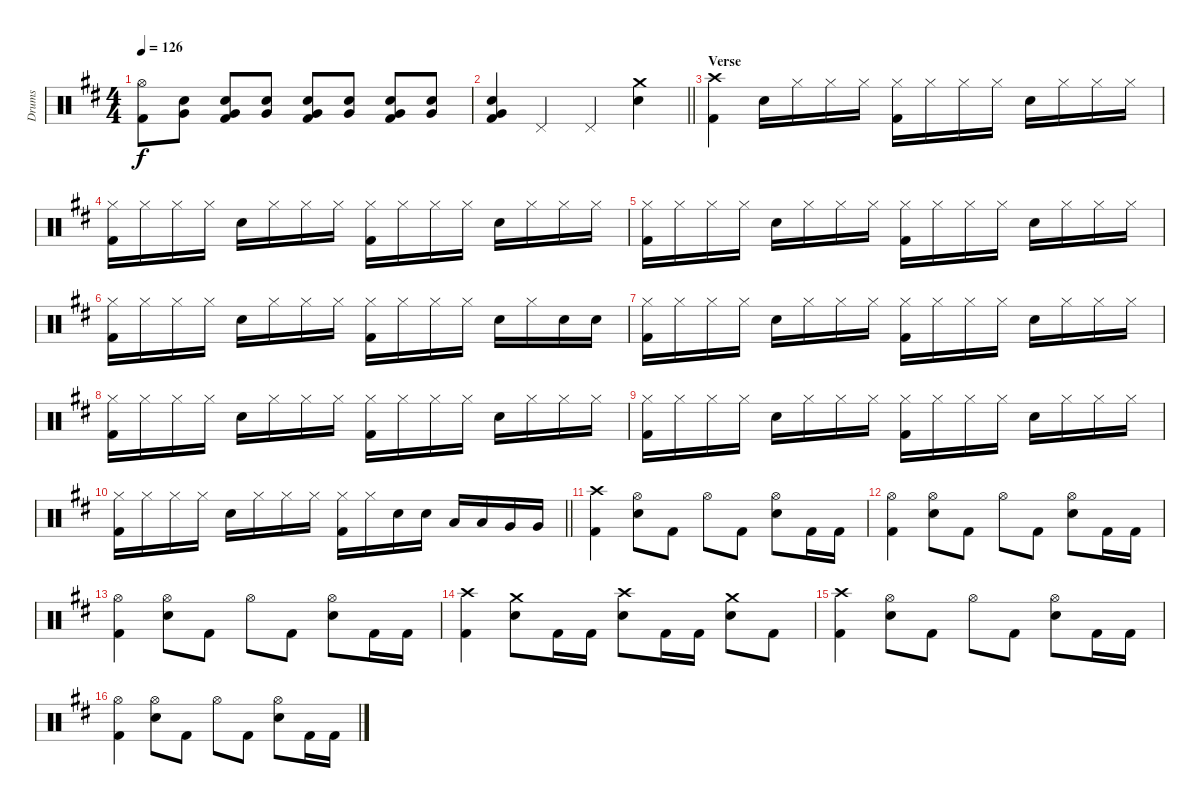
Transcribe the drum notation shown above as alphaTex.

\track ("Drums" "Drums") {instrument percussion}
\staff {score}
\articulation defaults
\ts (4 4)
\tempo 126
\clef neutral
\ks d
("Hi-Hat (open)" "Kick (hit) 2").8{dy f} ("Very Low Tom (hit)" "Electric Snare (hit)").8 ("Very Low Tom (hit)" "Electric Snare (hit)" "Kick (hit) 2").8 ("Very Low Tom (hit)" "Electric Snare (hit)").8 ("Very Low Tom (hit)" "Electric Snare (hit)" "Kick (hit) 2").8 ("Very Low Tom (hit)" "Electric Snare (hit)").8 ("Very Low Tom (hit)" "Electric Snare (hit)" "Kick (hit) 2").8 ("Very Low Tom (hit)" "Electric Snare (hit)").8 |
\barLineRight lightlight
("Very Low Tom (hit)" "Electric Snare (hit)" "Kick (hit) 2").4 "Pedal Hi-Hat (hit)".4 "Pedal Hi-Hat (hit)".4 ("Crash medium (hit)" "Electric Snare (hit)").4 |
\section ("" "Verse")
("Crash high (hit)" "Kick (hit) 2").4 "Electric Snare (hit)".16 "Hi-Hat (closed)".16 "Hi-Hat (closed)".16 "Hi-Hat (closed)".16 ("Hi-Hat (closed)" "Kick (hit) 2").16 "Hi-Hat (closed)".16 "Hi-Hat (closed)".16 "Hi-Hat (closed)".16 "Electric Snare (hit)".16 "Hi-Hat (closed)".16 "Hi-Hat (closed)".16 "Hi-Hat (closed)".16 |
("Hi-Hat (closed)" "Kick (hit) 2").16 "Hi-Hat (closed)".16 "Hi-Hat (closed)".16 "Hi-Hat (closed)".16 "Electric Snare (hit)".16 "Hi-Hat (closed)".16 "Hi-Hat (closed)".16 "Hi-Hat (closed)".16 ("Hi-Hat (closed)" "Kick (hit) 2").16 "Hi-Hat (closed)".16 "Hi-Hat (closed)".16 "Hi-Hat (closed)".16 "Electric Snare (hit)".16 "Hi-Hat (closed)".16 "Hi-Hat (closed)".16 "Hi-Hat (closed)".16 |
("Hi-Hat (closed)" "Kick (hit) 2").16 "Hi-Hat (closed)".16 "Hi-Hat (closed)".16 "Hi-Hat (closed)".16 "Electric Snare (hit)".16 "Hi-Hat (closed)".16 "Hi-Hat (closed)".16 "Hi-Hat (closed)".16 ("Hi-Hat (closed)" "Kick (hit) 2").16 "Hi-Hat (closed)".16 "Hi-Hat (closed)".16 "Hi-Hat (closed)".16 "Electric Snare (hit)".16 "Hi-Hat (closed)".16 "Hi-Hat (closed)".16 "Hi-Hat (closed)".16 |
("Hi-Hat (closed)" "Kick (hit) 2").16 "Hi-Hat (closed)".16 "Hi-Hat (closed)".16 "Hi-Hat (closed)".16 "Electric Snare (hit)".16 "Hi-Hat (closed)".16 "Hi-Hat (closed)".16 "Hi-Hat (closed)".16 ("Hi-Hat (closed)" "Kick (hit) 2").16 "Hi-Hat (closed)".16 "Hi-Hat (closed)".16 "Hi-Hat (closed)".16 "Electric Snare (hit)".16 "Hi-Hat (closed)".16 "Electric Snare (hit)".16 "Electric Snare (hit)".16 |
("Hi-Hat (closed)" "Kick (hit) 2").16 "Hi-Hat (closed)".16 "Hi-Hat (closed)".16 "Hi-Hat (closed)".16 "Electric Snare (hit)".16 "Hi-Hat (closed)".16 "Hi-Hat (closed)".16 "Hi-Hat (closed)".16 ("Hi-Hat (closed)" "Kick (hit) 2").16 "Hi-Hat (closed)".16 "Hi-Hat (closed)".16 "Hi-Hat (closed)".16 "Electric Snare (hit)".16 "Hi-Hat (closed)".16 "Hi-Hat (closed)".16 "Hi-Hat (closed)".16 |
("Hi-Hat (closed)" "Kick (hit) 2").16 "Hi-Hat (closed)".16 "Hi-Hat (closed)".16 "Hi-Hat (closed)".16 "Electric Snare (hit)".16 "Hi-Hat (closed)".16 "Hi-Hat (closed)".16 "Hi-Hat (closed)".16 ("Hi-Hat (closed)" "Kick (hit) 2").16 "Hi-Hat (closed)".16 "Hi-Hat (closed)".16 "Hi-Hat (closed)".16 "Electric Snare (hit)".16 "Hi-Hat (closed)".16 "Hi-Hat (closed)".16 "Hi-Hat (closed)".16 |
("Hi-Hat (closed)" "Kick (hit) 2").16 "Hi-Hat (closed)".16 "Hi-Hat (closed)".16 "Hi-Hat (closed)".16 "Electric Snare (hit)".16 "Hi-Hat (closed)".16 "Hi-Hat (closed)".16 "Hi-Hat (closed)".16 ("Hi-Hat (closed)" "Kick (hit) 2").16 "Hi-Hat (closed)".16 "Hi-Hat (closed)".16 "Hi-Hat (closed)".16 "Electric Snare (hit)".16 "Hi-Hat (closed)".16 "Hi-Hat (closed)".16 "Hi-Hat (closed)".16 |
\barLineRight lightlight
("Hi-Hat (closed)" "Kick (hit) 2").16 "Hi-Hat (closed)".16 "Hi-Hat (closed)".16 "Hi-Hat (closed)".16 "Electric Snare (hit)".16 "Hi-Hat (closed)".16 "Hi-Hat (closed)".16 "Hi-Hat (closed)".16 ("Hi-Hat (closed)" "Kick (hit) 2").16 "Hi-Hat (closed)".16 "Electric Snare (hit)".16 "Electric Snare (hit)".16 "Low Tom (hit)".16 "Low Tom (hit)".16 "Very Low Tom (hit)".16 "Very Low Tom (hit)".16 |
("Crash high (hit)" "Kick (hit) 2").4 ("Hi-Hat (open)" "Electric Snare (hit)").8 "Kick (hit) 2".8 "Hi-Hat (open)".8 "Kick (hit) 2".8 ("Hi-Hat (open)" "Electric Snare (hit)").8 "Kick (hit) 2".16 "Kick (hit) 2".16 |
("Hi-Hat (open)" "Kick (hit) 2").4 ("Hi-Hat (open)" "Electric Snare (hit)").8 "Kick (hit) 2".8 "Hi-Hat (open)".8 "Kick (hit) 2".8 ("Hi-Hat (open)" "Electric Snare (hit)").8 "Kick (hit) 2".16 "Kick (hit) 2".16 |
("Hi-Hat (open)" "Kick (hit) 2").4 ("Hi-Hat (open)" "Electric Snare (hit)").8 "Kick (hit) 2".8 "Hi-Hat (open)".8 "Kick (hit) 2".8 ("Hi-Hat (open)" "Electric Snare (hit)").8 "Kick (hit) 2".16 "Kick (hit) 2".16 |
("Crash high (hit)" "Kick (hit) 2").4 ("Crash medium (hit)" "Electric Snare (hit)").8 "Kick (hit) 2".16 "Kick (hit) 2".16 ("Crash high (hit)" "Electric Snare (hit)").8 "Kick (hit) 2".16 "Kick (hit) 2".16 ("Crash medium (hit)" "Electric Snare (hit)").8 "Kick (hit) 2".8 |
("Crash high (hit)" "Kick (hit) 2").4 ("Hi-Hat (open)" "Electric Snare (hit)").8 "Kick (hit) 2".8 "Hi-Hat (open)".8 "Kick (hit) 2".8 ("Hi-Hat (open)" "Electric Snare (hit)").8 "Kick (hit) 2".16 "Kick (hit) 2".16 |
("Hi-Hat (open)" "Kick (hit) 2").4 ("Hi-Hat (open)" "Electric Snare (hit)").8 "Kick (hit) 2".8 "Hi-Hat (open)".8 "Kick (hit) 2".8 ("Hi-Hat (open)" "Electric Snare (hit)").8 "Kick (hit) 2".16 "Kick (hit) 2".16
